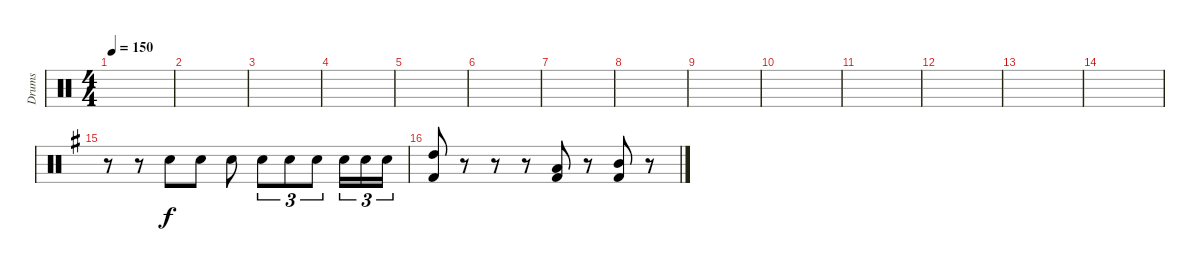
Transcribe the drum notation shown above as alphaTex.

\track ("Drums" "Drums") {instrument percussion}
\staff {score}
\articulation defaults
\ts (4 4)
\tempo 150
\clef neutral
\ks c
|
|
|
|
|
|
|
|
|
|
|
|
|
|
\ks eminor
r.8 r.8 "Snare (hit) 2".8 "Snare (hit) 2".8 "Snare (hit) 2".8 "Snare (hit) 2".8{tu (3 2)} "Snare (hit) 2".8{tu (3 2)} "Snare (hit) 2".8{tu (3 2)} "Snare (hit) 2".16{tu (3 2)} "Snare (hit) 2".16{tu (3 2)} "Snare (hit) 2".16{tu (3 2)} |
\ks g
("High Tom (hit)" "Kick (hit) 2").8 r.8 r.8 r.8 ("Low Tom (hit)" "Kick (hit) 2").8 r.8 ("Mid Tom (hit)" "Kick (hit) 2").8 r.8
